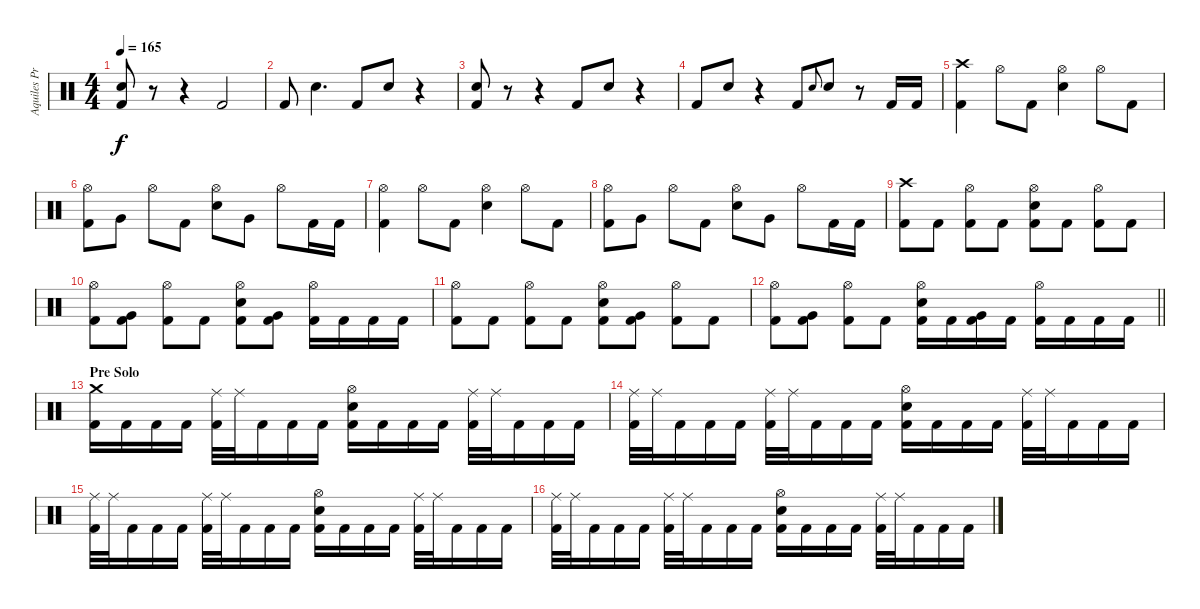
\track ("Aquiles Priester" "Aquiles Pr") {instrument percussion}
\staff {score}
\articulation defaults
\ts (4 4)
\tempo 165
\clef neutral
\ks c
("Electric Snare (hit)" "Kick (hit) 2").8{dy f} r.8 r.4 "Kick (hit) 2".2 |
"Kick (hit) 2".8 "Electric Snare (hit)".4{d} "Kick (hit) 2".8 "Electric Snare (hit)".8 r.4 |
("Electric Snare (hit)" "Kick (hit) 2").8 r.8 r.4 "Kick (hit) 2".8 "Electric Snare (hit)".8 r.4 |
"Kick (hit) 2".8 "Electric Snare (hit)".8 r.4 "Kick (hit) 2".8 "Electric Snare (hit)".8{gr onbeat} "Electric Snare (hit)".8 r.8 "Kick (hit) 2".16 "Kick (hit) 2".16 |
("Crash high (hit)" "Kick (hit) 2").4 "Hi-Hat (open)".8 "Kick (hit) 2".8 ("Hi-Hat (open)" "Electric Snare (hit)").4 "Hi-Hat (open)".8 "Kick (hit) 2".8 |
("Hi-Hat (open)" "Kick (hit) 2").8 "Very Low Tom (hit)".8 "Hi-Hat (open)".8 "Kick (hit) 2".8 ("Hi-Hat (open)" "Electric Snare (hit)").8 "Very Low Tom (hit)".8 "Hi-Hat (open)".8 "Kick (hit) 2".16 "Kick (hit) 2".16 |
("Hi-Hat (open)" "Kick (hit) 2").4 "Hi-Hat (open)".8 "Kick (hit) 2".8 ("Hi-Hat (open)" "Electric Snare (hit)").4 "Hi-Hat (open)".8 "Kick (hit) 2".8 |
("Hi-Hat (open)" "Kick (hit) 2").8 "Very Low Tom (hit)".8 "Hi-Hat (open)".8 "Kick (hit) 2".8 ("Hi-Hat (open)" "Electric Snare (hit)").8 "Very Low Tom (hit)".8 "Hi-Hat (open)".8 "Kick (hit) 2".16 "Kick (hit) 2".16 |
("Crash high (hit)" "Kick (hit) 2").8 "Kick (hit) 2".8 ("Hi-Hat (open)" "Kick (hit) 2").8 "Kick (hit) 2".8 ("Hi-Hat (open)" "Electric Snare (hit)" "Kick (hit) 2").8 "Kick (hit) 2".8 ("Hi-Hat (open)" "Kick (hit) 2").8 "Kick (hit) 2".8 |
("Hi-Hat (open)" "Kick (hit) 2").8 ("Very Low Tom (hit)" "Kick (hit) 2").8 ("Hi-Hat (open)" "Kick (hit) 2").8 "Kick (hit) 2".8 ("Hi-Hat (open)" "Electric Snare (hit)" "Kick (hit) 2").8 ("Very Low Tom (hit)" "Kick (hit) 2").8 ("Hi-Hat (open)" "Kick (hit) 2").16 "Kick (hit) 2".16 "Kick (hit) 2".16 "Kick (hit) 2".16 |
("Hi-Hat (open)" "Kick (hit) 2").8 "Kick (hit) 2".8 ("Hi-Hat (open)" "Kick (hit) 2").8 "Kick (hit) 2".8 ("Hi-Hat (open)" "Electric Snare (hit)" "Kick (hit) 2").8 ("Very Low Tom (hit)" "Kick (hit) 2").8 ("Hi-Hat (open)" "Kick (hit) 2").8 "Kick (hit) 2".8 |
\barLineRight lightlight
("Hi-Hat (open)" "Kick (hit) 2").8 ("Very Low Tom (hit)" "Kick (hit) 2").8 ("Hi-Hat (open)" "Kick (hit) 2").8 "Kick (hit) 2".8 ("Hi-Hat (open)" "Electric Snare (hit)" "Kick (hit) 2").16 "Kick (hit) 2".16 ("Very Low Tom (hit)" "Kick (hit) 2").16 "Kick (hit) 2".16 ("Hi-Hat (open)" "Kick (hit) 2").16 "Kick (hit) 2".16 "Kick (hit) 2".16 "Kick (hit) 2".16 |
\section ("" "Pre Solo")
("Crash medium (hit)" "Kick (hit) 2").16 "Kick (hit) 2".16 "Kick (hit) 2".16 "Kick (hit) 2".16 ("Ride (middle)" "Kick (hit) 2").32 "Ride (middle)".32 "Kick (hit) 2".16 "Kick (hit) 2".16 "Kick (hit) 2".16 ("Hi-Hat (open)" "Electric Snare (hit)" "Kick (hit) 2").16 "Kick (hit) 2".16 "Kick (hit) 2".16 "Kick (hit) 2".16 ("Ride (middle)" "Kick (hit) 2").32 "Ride (middle)".32 "Kick (hit) 2".16 "Kick (hit) 2".16 "Kick (hit) 2".16 |
("Ride (middle)" "Kick (hit) 2").32 "Ride (middle)".32 "Kick (hit) 2".16 "Kick (hit) 2".16 "Kick (hit) 2".16 ("Ride (middle)" "Kick (hit) 2").32 "Ride (middle)".32 "Kick (hit) 2".16 "Kick (hit) 2".16 "Kick (hit) 2".16 ("Hi-Hat (open)" "Electric Snare (hit)" "Kick (hit) 2").16 "Kick (hit) 2".16 "Kick (hit) 2".16 "Kick (hit) 2".16 ("Ride (middle)" "Kick (hit) 2").32 "Ride (middle)".32 "Kick (hit) 2".16 "Kick (hit) 2".16 "Kick (hit) 2".16 |
("Ride (middle)" "Kick (hit) 2").32 "Ride (middle)".32 "Kick (hit) 2".16 "Kick (hit) 2".16 "Kick (hit) 2".16 ("Ride (middle)" "Kick (hit) 2").32 "Ride (middle)".32 "Kick (hit) 2".16 "Kick (hit) 2".16 "Kick (hit) 2".16 ("Hi-Hat (open)" "Electric Snare (hit)" "Kick (hit) 2").16 "Kick (hit) 2".16 "Kick (hit) 2".16 "Kick (hit) 2".16 ("Ride (middle)" "Kick (hit) 2").32 "Ride (middle)".32 "Kick (hit) 2".16 "Kick (hit) 2".16 "Kick (hit) 2".16 |
("Ride (middle)" "Kick (hit) 2").32 "Ride (middle)".32 "Kick (hit) 2".16 "Kick (hit) 2".16 "Kick (hit) 2".16 ("Ride (middle)" "Kick (hit) 2").32 "Ride (middle)".32 "Kick (hit) 2".16 "Kick (hit) 2".16 "Kick (hit) 2".16 ("Hi-Hat (open)" "Electric Snare (hit)" "Kick (hit) 2").16 "Kick (hit) 2".16 "Kick (hit) 2".16 "Kick (hit) 2".16 ("Ride (middle)" "Kick (hit) 2").32 "Ride (middle)".32 "Kick (hit) 2".16 "Kick (hit) 2".16 "Kick (hit) 2".16
